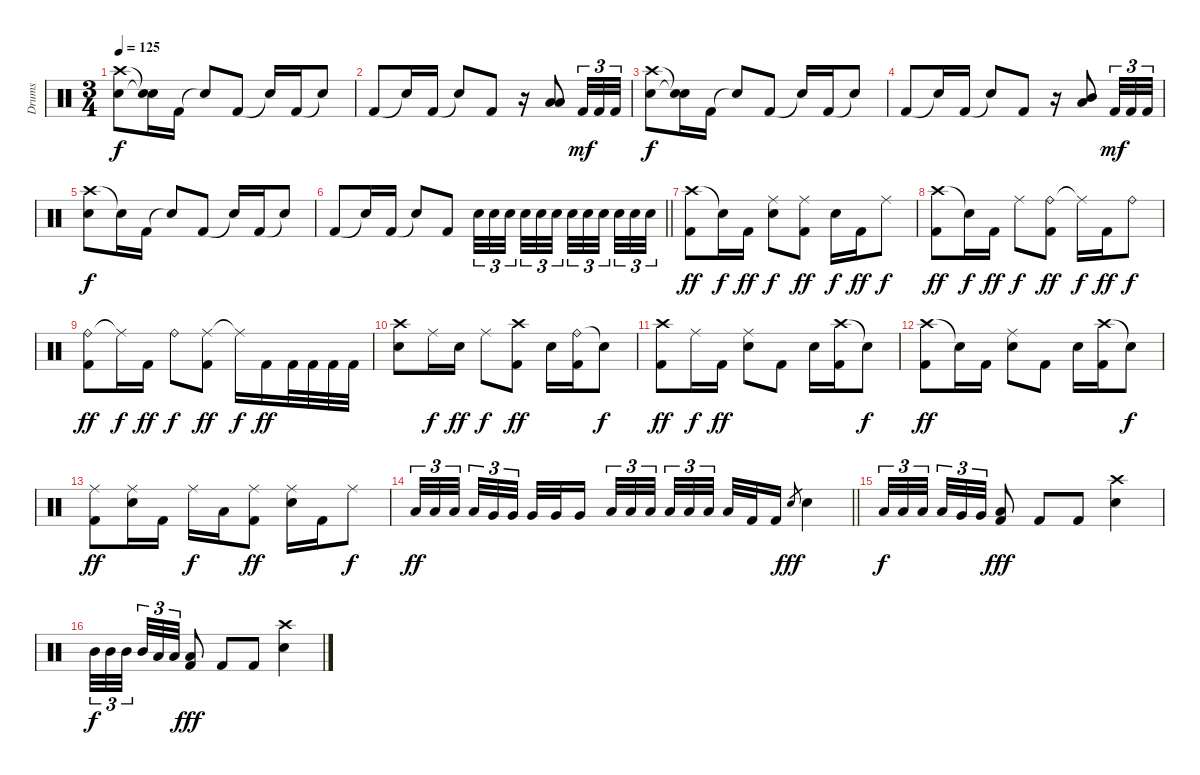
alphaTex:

\track ("Drums" "Drums") {instrument percussion}
\staff {score}
\articulation defaults
\ts (3 4)
\tempo 125
\clef neutral
\ks c
("Crash high (hit)" "Snare (hit) 2").8{dy f} ("Snare (hit)"{t} "Snare (hit)"{t}).16 "Kick (hit) 2".16 "Snare (hit)"{t}.8 "Kick (hit) 2".8 "Snare (hit)"{t}.16 "Kick (hit) 2".16 "Snare (hit)"{t}.8 |
"Kick (hit) 2".8 "Snare (hit)"{t}.16 "Kick (hit) 2".16 "Snare (hit)"{t}.8 "Kick (hit) 2".8 r.16 ("Low Floor Tom (hit)" "Low Tom (hit)").8 "Kick (hit) 2".32{tu (3 2) dy mf} "Kick (hit) 2".32{tu (3 2)} "Kick (hit) 2".32{tu (3 2)} |
("Crash high (hit)" "Snare (hit) 2").8{dy f} ("Snare (hit)"{t} "Snare (hit)"{t}).16 "Kick (hit) 2".16 "Snare (hit)"{t}.8 "Kick (hit) 2".8 "Snare (hit)"{t}.16 "Kick (hit) 2".16 "Snare (hit)"{t}.8 |
"Kick (hit) 2".8 "Snare (hit)"{t}.16 "Kick (hit) 2".16 "Snare (hit)"{t}.8 "Kick (hit) 2".8 r.16 ("Mid Tom (hit)" "Low Tom (hit)").8 "Kick (hit) 2".32{tu (3 2) dy mf} "Kick (hit) 2".32{tu (3 2)} "Kick (hit) 2".32{tu (3 2)} |
("Crash high (hit)" "Snare (hit) 2").8{dy f} "Snare (hit)"{t}.16 "Kick (hit) 2".16 "Snare (hit)"{t}.8 "Kick (hit) 2".8 "Snare (hit)"{t}.16 "Kick (hit) 2".16 "Snare (hit)"{t}.8 |
\barLineRight lightlight "Kick (hit) 2".8 "Snare (hit)"{t}.16 "Kick (hit) 2".16 "Snare (hit)"{t}.8 "Kick (hit) 2".8 "Snare (hit) 2".32{tu (3 2)} "Snare (hit) 2".32{tu (3 2)} "Snare (hit) 2".32{tu (3 2) beam splitsecondary} "Snare (hit) 2".32{tu (3 2)} "Snare (hit) 2".32{tu (3 2)} "Snare (hit) 2".32{tu (3 2) beam splitsecondary} "Snare (hit) 2".32{tu (3 2)} "Snare (hit) 2".32{tu (3 2)} "Snare (hit) 2".32{tu (3 2) beam splitsecondary} "Snare (hit) 2".32{tu (3 2)} "Snare (hit) 2".32{tu (3 2)} "Snare (hit) 2".32{tu (3 2)}
|
("Crash high (hit)" "Kick (hit) 2").8{dy ff} "Snare (hit)"{t}.16{dy f} "Kick (hit) 2".16{dy ff} ("Ride (middle)" "Snare (hit) 2").8{dy f} ("Ride (middle)" "Kick (hit) 2").8{dy ff} "Snare (hit) 2".16{dy f} "Kick (hit) 2".16{dy ff} "Ride (middle)".8{dy f} |
("Crash high (hit)" "Kick (hit) 2").8{dy ff} "Snare (hit)"{t}.16{dy f} "Kick (hit) 2".16{dy ff} "Ride (middle)".8{dy f} ("Ride (bell)" "Kick (hit) 2").8{dy ff} "Ride (middle)"{t}.16{dy f} "Kick (hit) 2".16{dy ff} "Ride (bell)".8{dy f} |
("Ride (bell)" "Kick (hit) 2").8{dy ff} "Ride (middle)"{t}.16{dy f} "Kick (hit) 2".16{dy ff} "Ride (bell)".8{dy f} ("Ride (middle)" "Kick (hit) 2").8{dy ff} "Ride (middle)"{t}.16{dy f} "Kick (hit) 2".16{dy ff} "Kick (hit) 2".32 "Kick (hit) 2".32 "Kick (hit) 2".32 "Kick (hit) 2".32 |
("Crash high (hit)" "Snare (hit) 2").8 "Ride (middle)".16{dy f} "Snare (hit) 2".16{dy ff} "Ride (middle)".8{dy f} ("Crash high (hit)" "Kick (hit) 2").8{dy ff} "Snare (hit) 2".16 ("Ride (bell)" "Kick (hit) 2").16 "Snare (hit)"{t}.8{dy f} |
("Crash high (hit)" "Kick (hit) 2").8{dy ff} "Ride (middle)".16{dy f} "Kick (hit) 2".16{dy ff} ("Ride (middle)" "Snare (hit) 2").8 "Kick (hit) 2".8 "Snare (hit) 2".16 ("Crash high (hit)" "Kick (hit) 2").16 "Snare (hit)"{t}.8{dy f} |
("Crash high (hit)" "Kick (hit) 2").8{dy ff} "Snare (hit)"{t}.16 "Kick (hit) 2".16 ("Ride (middle)" "Snare (hit) 2").8 "Kick (hit) 2".8 "Snare (hit) 2".16 ("Crash high (hit)" "Kick (hit) 2").16 "Snare (hit)"{t}.8{dy f} |
("Ride (middle)" "Kick (hit) 2").8{dy ff} ("Ride (middle)" "Snare (hit) 2").16 "Kick (hit) 2".16 "Ride (middle)".16{dy f} "Low Tom (hit)".16 ("Ride (middle)" "Kick (hit) 2").8{dy ff} ("Ride (middle)" "Snare (hit) 2").16 "Kick (hit) 2".16 "Ride (middle)".8{dy f} |
\barLineRight lightlight "Low Floor Tom (hit)".32{tu (3 2) dy ff} "Low Floor Tom (hit)".32{tu (3 2)} "Low Floor Tom (hit)".32{tu (3 2) beam splitsecondary} "Low Floor Tom (hit)".32{tu (3 2)} "Very Low Tom (hit)".32{tu (3 2)} "Very Low Tom (hit)".32{tu (3 2) beam splitsecondary} "Very Low Tom (hit)".32 "Very Low Tom (hit)".32 "Very Low Tom (hit)".16 "Low Floor Tom (hit)".32{tu (3 2)} "Low Floor Tom (hit)".32{tu (3 2)} "Low Floor Tom (hit)".32{tu (3 2) beam splitsecondary} "Low Floor Tom (hit)".32{tu (3 2)} "Low Floor Tom (hit)".32{tu (3 2)} "Low Floor Tom (hit)".32{tu (3 2) beam splitsecondary} "Low Tom (hit)".32 "Kick (hit) 2".32 "Kick (hit) 2".16 "Snare (hit) 2".8{gr dy fff} "Snare (hit) 2".4
|
\section ("" "")
"Low Floor Tom (hit)".32{tu (3 2) dy f} "Low Floor Tom (hit)".32{tu (3 2)} "Low Floor Tom (hit)".32{tu (3 2) beam splitsecondary} "Low Floor Tom (hit)".32{tu (3 2)} "Very Low Tom (hit)".32{tu (3 2)} "Very Low Tom (hit)".32{tu (3 2)} ("Low Floor Tom (hit)" "Kick (hit) 2").8{dy fff} "Kick (hit) 2".8 "Kick (hit) 2".8 ("Crash high (hit)" "Snare (hit) 2").4 |
"Mid Tom (hit)".32{tu (3 2) dy f} "Mid Tom (hit)".32{tu (3 2)} "Mid Tom (hit)".32{tu (3 2) beam splitsecondary} "Mid Tom (hit)".32{tu (3 2)} "Low Tom (hit)".32{tu (3 2)} "Low Tom (hit)".32{tu (3 2)} ("Low Tom (hit)" "Kick (hit) 2").8{dy fff} "Kick (hit) 2".8 "Kick (hit) 2".8 ("Crash high (hit)" "Snare (hit) 2").4
